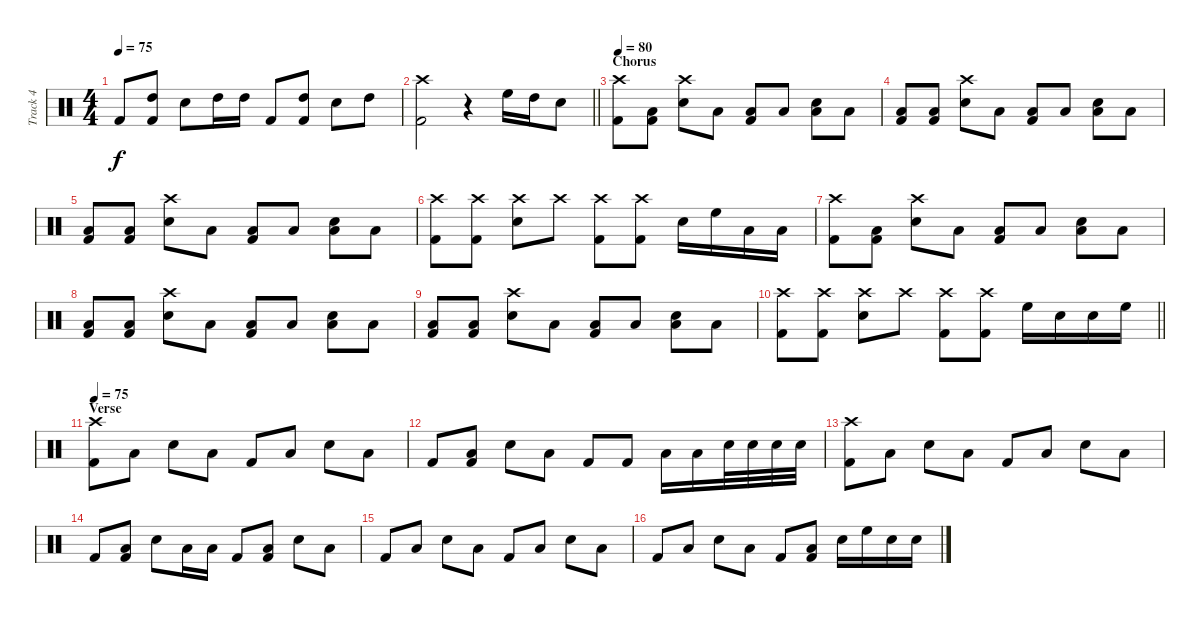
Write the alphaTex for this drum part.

\track ("Track 4" "Track 4") {instrument percussion}
\staff {score}
\articulation defaults
\ts (4 4)
\tempo 75
\clef neutral
\ks c "Kick (hit) 2".8{dy f}
("High Tom (hit)" "Kick (hit) 2").8 "Snare (hit) 2".8 "High Tom (hit)".16 "High Tom (hit)".16 "Kick (hit) 2".8 ("High Tom (hit)" "Kick (hit) 2").8 "Snare (hit) 2".8 "High Tom (hit)".8 |
\barLineRight lightlight
("Crash high (hit)" "Kick (hit) 2").2 r.4 "High Floor Tom (hit)".16 "High Tom (hit)".16 "Snare (hit) 2".8 |
\section ("" "Chorus")
\tempo 80
("Crash high (hit)" "Kick (hit) 2").8 ("Low Tom (hit)" "Kick (hit) 2").8 ("Crash high (hit)" "Snare (hit) 2").8 "Low Tom (hit)".8 ("Low Tom (hit)" "Kick (hit) 2").8 "Low Tom (hit)".8 ("Low Tom (hit)" "Snare (hit) 2").8 "Low Tom (hit)".8 |
("Low Tom (hit)" "Kick (hit) 2").8 ("Low Tom (hit)" "Kick (hit) 2").8 ("Crash high (hit)" "Snare (hit) 2").8 "Low Tom (hit)".8 ("Low Tom (hit)" "Kick (hit) 2").8 "Low Tom (hit)".8 ("Low Tom (hit)" "Snare (hit) 2").8 "Low Tom (hit)".8 |
("Low Tom (hit)" "Kick (hit) 2").8 ("Low Tom (hit)" "Kick (hit) 2").8 ("Crash high (hit)" "Snare (hit) 2").8 "Low Tom (hit)".8 ("Low Tom (hit)" "Kick (hit) 2").8 "Low Tom (hit)".8 ("Low Tom (hit)" "Snare (hit) 2").8 "Low Tom (hit)".8 |
("Crash high (hit)" "Kick (hit) 2").8 ("Crash high (hit)" "Kick (hit) 2").8 ("Crash high (hit)" "Snare (hit) 2").8 "Crash high (hit)".8 ("Crash high (hit)" "Kick (hit) 2").8 ("Crash high (hit)" "Kick (hit) 2").8 "Snare (hit) 2".16 "High Floor Tom (hit)".16 "Low Tom (hit)".16 "Low Floor Tom (hit)".16 |
("Crash high (hit)" "Kick (hit) 2").8 ("Low Tom (hit)" "Kick (hit) 2").8 ("Crash high (hit)" "Snare (hit) 2").8 "Low Tom (hit)".8 ("Low Tom (hit)" "Kick (hit) 2").8 "Low Tom (hit)".8 ("Low Tom (hit)" "Snare (hit) 2").8 "Low Tom (hit)".8 |
("Low Tom (hit)" "Kick (hit) 2").8 ("Low Tom (hit)" "Kick (hit) 2").8 ("Crash high (hit)" "Snare (hit) 2").8 "Low Tom (hit)".8 ("Low Tom (hit)" "Kick (hit) 2").8 "Low Tom (hit)".8 ("Low Tom (hit)" "Snare (hit) 2").8 "Low Tom (hit)".8 |
("Low Tom (hit)" "Kick (hit) 2").8 ("Low Tom (hit)" "Kick (hit) 2").8 ("Crash high (hit)" "Snare (hit) 2").8 "Low Tom (hit)".8 ("Low Tom (hit)" "Kick (hit) 2").8 "Low Tom (hit)".8 ("Low Tom (hit)" "Snare (hit) 2").8 "Low Tom (hit)".8 |
\barLineRight lightlight
("Crash high (hit)" "Kick (hit) 2").8 ("Crash high (hit)" "Kick (hit) 2").8 ("Crash high (hit)" "Snare (hit) 2").8 "Crash high (hit)".8 ("Crash high (hit)" "Kick (hit) 2").8 ("Crash high (hit)" "Kick (hit) 2").8 "High Floor Tom (hit)".16 "Snare (hit) 2".16 "Snare (hit) 2".16 "High Floor Tom (hit)".16 |
\section ("" "Verse")
\tempo 75
("Crash high (hit)" "Kick (hit) 2").8 "Low Floor Tom (hit)".8 "Snare (hit) 2".8 "Low Floor Tom (hit)".8 "Kick (hit) 2".8 "Low Floor Tom (hit)".8 "Snare (hit) 2".8 "Low Floor Tom (hit)".8 |
"Kick (hit) 2".8 ("Low Floor Tom (hit)" "Kick (hit) 2").8 "Snare (hit) 2".8 "Low Floor Tom (hit)".8 "Kick (hit) 2".8 "Kick (hit) 2".8 "Low Floor Tom (hit)".16 "Low Floor Tom (hit)".16 "Snare (hit) 2".32 "Snare (hit) 2".32 "Snare (hit) 2".32 "Snare (hit) 2".32 |
("Crash high (hit)" "Kick (hit) 2").8 "Low Floor Tom (hit)".8 "Snare (hit) 2".8 "Low Floor Tom (hit)".8 "Kick (hit) 2".8 "Low Floor Tom (hit)".8 "Snare (hit) 2".8 "Low Floor Tom (hit)".8 |
"Kick (hit) 2".8 ("Low Floor Tom (hit)" "Kick (hit) 2").8 "Snare (hit) 2".8 "Low Floor Tom (hit)".16 "Low Floor Tom (hit)".16 "Kick (hit) 2".8 ("Low Floor Tom (hit)" "Kick (hit) 2").8 "Snare (hit) 2".8 "Low Floor Tom (hit)".8 |
"Kick (hit) 2".8 "Low Floor Tom (hit)".8 "Snare (hit) 2".8 "Low Floor Tom (hit)".8 "Kick (hit) 2".8 "Low Floor Tom (hit)".8 "Snare (hit) 2".8 "Low Floor Tom (hit)".8 |
"Kick (hit) 2".8 "Low Floor Tom (hit)".8 "Snare (hit) 2".8 "Low Floor Tom (hit)".8 "Kick (hit) 2".8 ("Low Floor Tom (hit)" "Kick (hit) 2").8 "Snare (hit) 2".16 "High Floor Tom (hit)".16 "Snare (hit) 2".16 "Snare (hit) 2".16
